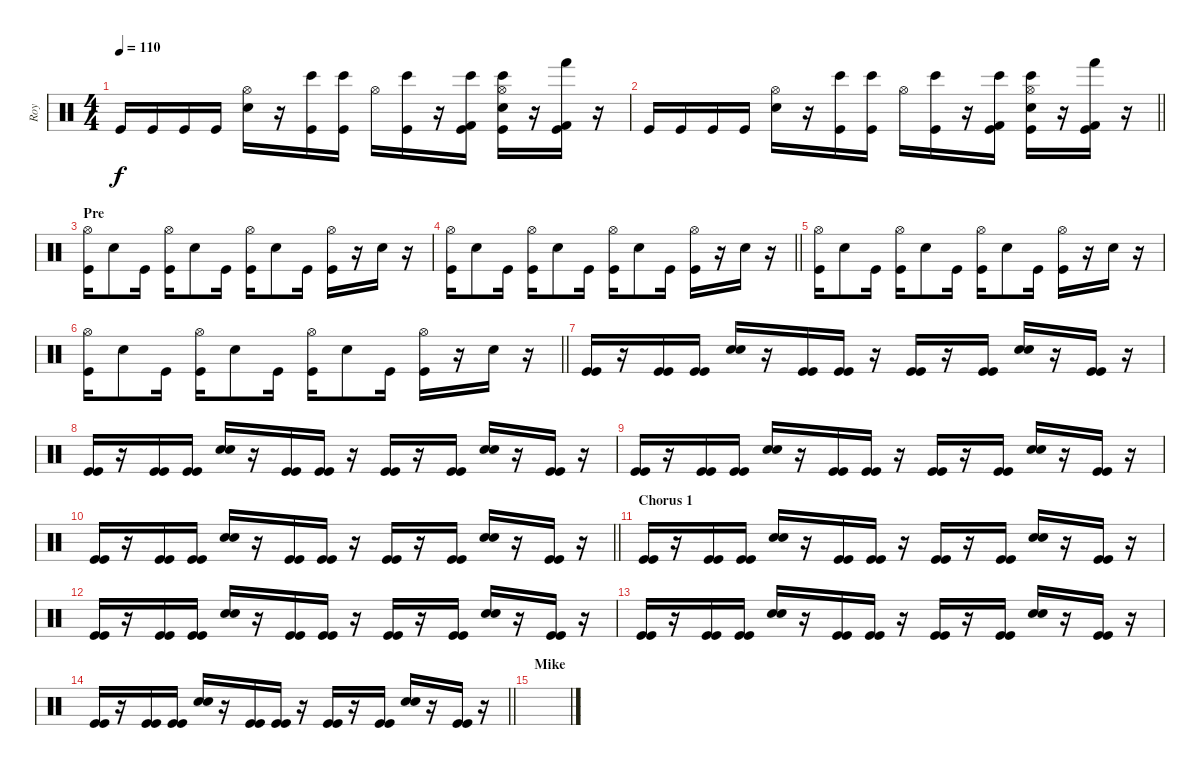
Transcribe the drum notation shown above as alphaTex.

\track ("Roy" "Roy") {instrument percussion}
\staff {score}
\articulation defaults
\ts (4 4)
\tempo 110
\clef neutral
\ks c "Kick (hit)".16{dy f} "Kick (hit)".16 "Kick (hit)".16 "Kick (hit)".16
("Hi-Hat (open)" "Electric Snare (hit)").16 r.16 ("Bongo High (hit)" "Kick (hit)").16 ("Bongo High (hit)" "Kick (hit)").16 "Hi-Hat (open)".16 ("Bongo High (hit)" "Kick (hit)").16 r.16 ("Kick (hit) 2" "Bongo High (hit)" "Kick (hit)").16 ("Hi-Hat (open)" "Electric Snare (hit)" "Bongo High (hit)" "Kick (hit)").16 r.16 ("Kick (hit) 2" "Hand (hit)" "Kick (hit)").16 r.16 |
\barLineRight lightlight "Kick (hit)".16 "Kick (hit)".16 "Kick (hit)".16 "Kick (hit)".16
("Hi-Hat (open)" "Electric Snare (hit)").16 r.16 ("Bongo High (hit)" "Kick (hit)").16 ("Bongo High (hit)" "Kick (hit)").16 "Hi-Hat (open)".16 ("Bongo High (hit)" "Kick (hit)").16 r.16 ("Kick (hit) 2" "Bongo High (hit)" "Kick (hit)").16 ("Hi-Hat (open)" "Electric Snare (hit)" "Bongo High (hit)" "Kick (hit)").16 r.16 ("Kick (hit) 2" "Hand (hit)" "Kick (hit)").16 r.16 |
\section ("" "Pre")
("Hi-Hat (open)" "Kick (hit)").16 "Electric Snare (hit)".8 "Kick (hit)".16 ("Hi-Hat (open)" "Kick (hit)").16 "Electric Snare (hit)".8 "Kick (hit)".16 ("Hi-Hat (open)" "Kick (hit)").16 "Electric Snare (hit)".8 "Kick (hit)".16 ("Hi-Hat (open)" "Kick (hit)").16 r.16 "Electric Snare (hit)".16 r.16 |
\barLineRight lightlight
("Hi-Hat (open)" "Kick (hit)").16 "Electric Snare (hit)".8 "Kick (hit)".16 ("Hi-Hat (open)" "Kick (hit)").16 "Electric Snare (hit)".8 "Kick (hit)".16 ("Hi-Hat (open)" "Kick (hit)").16 "Electric Snare (hit)".8 "Kick (hit)".16 ("Hi-Hat (open)" "Kick (hit)").16 r.16 "Electric Snare (hit)".16 r.16 |
("Hi-Hat (open)" "Kick (hit)").16 "Electric Snare (hit)".8 "Kick (hit)".16 ("Hi-Hat (open)" "Kick (hit)").16 "Electric Snare (hit)".8 "Kick (hit)".16 ("Hi-Hat (open)" "Kick (hit)").16 "Electric Snare (hit)".8 "Kick (hit)".16 ("Hi-Hat (open)" "Kick (hit)").16 r.16 "Electric Snare (hit)".16 r.16 |
\barLineRight lightlight
("Hi-Hat (open)" "Kick (hit)").16 "Electric Snare (hit)".8 "Kick (hit)".16 ("Hi-Hat (open)" "Kick (hit)").16 "Electric Snare (hit)".8 "Kick (hit)".16 ("Hi-Hat (open)" "Kick (hit)").16 "Electric Snare (hit)".8 "Kick (hit)".16 ("Hi-Hat (open)" "Kick (hit)").16 r.16 "Electric Snare (hit)".16 r.16 |
\section ("" "")
("Kick (hit)" "Kick (hit)").16 r.16 ("Kick (hit)" "Kick (hit)").16 ("Kick (hit)" "Kick (hit)").16 ("Electric Snare (hit)" "Electric Snare (hit)").16 r.16 ("Kick (hit)" "Kick (hit)").16 ("Kick (hit)" "Kick (hit)").16 r.16 ("Kick (hit)" "Kick (hit)").16 r.16 ("Kick (hit)" "Kick (hit)").16 ("Electric Snare (hit)" "Electric Snare (hit)").16 r.16 ("Kick (hit)" "Kick (hit)").16 r.16 |
("Kick (hit)" "Kick (hit)").16 r.16 ("Kick (hit)" "Kick (hit)").16 ("Kick (hit)" "Kick (hit)").16 ("Electric Snare (hit)" "Electric Snare (hit)").16 r.16 ("Kick (hit)" "Kick (hit)").16 ("Kick (hit)" "Kick (hit)").16 r.16 ("Kick (hit)" "Kick (hit)").16 r.16 ("Kick (hit)" "Kick (hit)").16 ("Electric Snare (hit)" "Electric Snare (hit)").16 r.16 ("Kick (hit)" "Kick (hit)").16 r.16 |
("Kick (hit)" "Kick (hit)").16 r.16 ("Kick (hit)" "Kick (hit)").16 ("Kick (hit)" "Kick (hit)").16 ("Electric Snare (hit)" "Electric Snare (hit)").16 r.16 ("Kick (hit)" "Kick (hit)").16 ("Kick (hit)" "Kick (hit)").16 r.16 ("Kick (hit)" "Kick (hit)").16 r.16 ("Kick (hit)" "Kick (hit)").16 ("Electric Snare (hit)" "Electric Snare (hit)").16 r.16 ("Kick (hit)" "Kick (hit)").16 r.16 |
\barLineRight lightlight
("Kick (hit)" "Kick (hit)").16 r.16 ("Kick (hit)" "Kick (hit)").16 ("Kick (hit)" "Kick (hit)").16 ("Electric Snare (hit)" "Electric Snare (hit)").16 r.16 ("Kick (hit)" "Kick (hit)").16 ("Kick (hit)" "Kick (hit)").16 r.16 ("Kick (hit)" "Kick (hit)").16 r.16 ("Kick (hit)" "Kick (hit)").16 ("Electric Snare (hit)" "Electric Snare (hit)").16 r.16 ("Kick (hit)" "Kick (hit)").16 r.16 |
\section ("" "Chorus 1")
("Kick (hit)" "Kick (hit)").16 r.16 ("Kick (hit)" "Kick (hit)").16 ("Kick (hit)" "Kick (hit)").16 ("Electric Snare (hit)" "Electric Snare (hit)").16 r.16 ("Kick (hit)" "Kick (hit)").16 ("Kick (hit)" "Kick (hit)").16 r.16 ("Kick (hit)" "Kick (hit)").16 r.16 ("Kick (hit)" "Kick (hit)").16 ("Electric Snare (hit)" "Electric Snare (hit)").16 r.16 ("Kick (hit)" "Kick (hit)").16 r.16 |
("Kick (hit)" "Kick (hit)").16 r.16 ("Kick (hit)" "Kick (hit)").16 ("Kick (hit)" "Kick (hit)").16 ("Electric Snare (hit)" "Electric Snare (hit)").16 r.16 ("Kick (hit)" "Kick (hit)").16 ("Kick (hit)" "Kick (hit)").16 r.16 ("Kick (hit)" "Kick (hit)").16 r.16 ("Kick (hit)" "Kick (hit)").16 ("Electric Snare (hit)" "Electric Snare (hit)").16 r.16 ("Kick (hit)" "Kick (hit)").16 r.16 |
("Kick (hit)" "Kick (hit)").16 r.16 ("Kick (hit)" "Kick (hit)").16 ("Kick (hit)" "Kick (hit)").16 ("Electric Snare (hit)" "Electric Snare (hit)").16 r.16 ("Kick (hit)" "Kick (hit)").16 ("Kick (hit)" "Kick (hit)").16 r.16 ("Kick (hit)" "Kick (hit)").16 r.16 ("Kick (hit)" "Kick (hit)").16 ("Electric Snare (hit)" "Electric Snare (hit)").16 r.16 ("Kick (hit)" "Kick (hit)").16 r.16 |
\barLineRight lightlight
("Kick (hit)" "Kick (hit)").16 r.16 ("Kick (hit)" "Kick (hit)").16 ("Kick (hit)" "Kick (hit)").16 ("Electric Snare (hit)" "Electric Snare (hit)").16 r.16 ("Kick (hit)" "Kick (hit)").16 ("Kick (hit)" "Kick (hit)").16 r.16 ("Kick (hit)" "Kick (hit)").16 r.16 ("Kick (hit)" "Kick (hit)").16 ("Electric Snare (hit)" "Electric Snare (hit)").16 r.16 ("Kick (hit)" "Kick (hit)").16 r.16 |
\section ("" "Mike")
